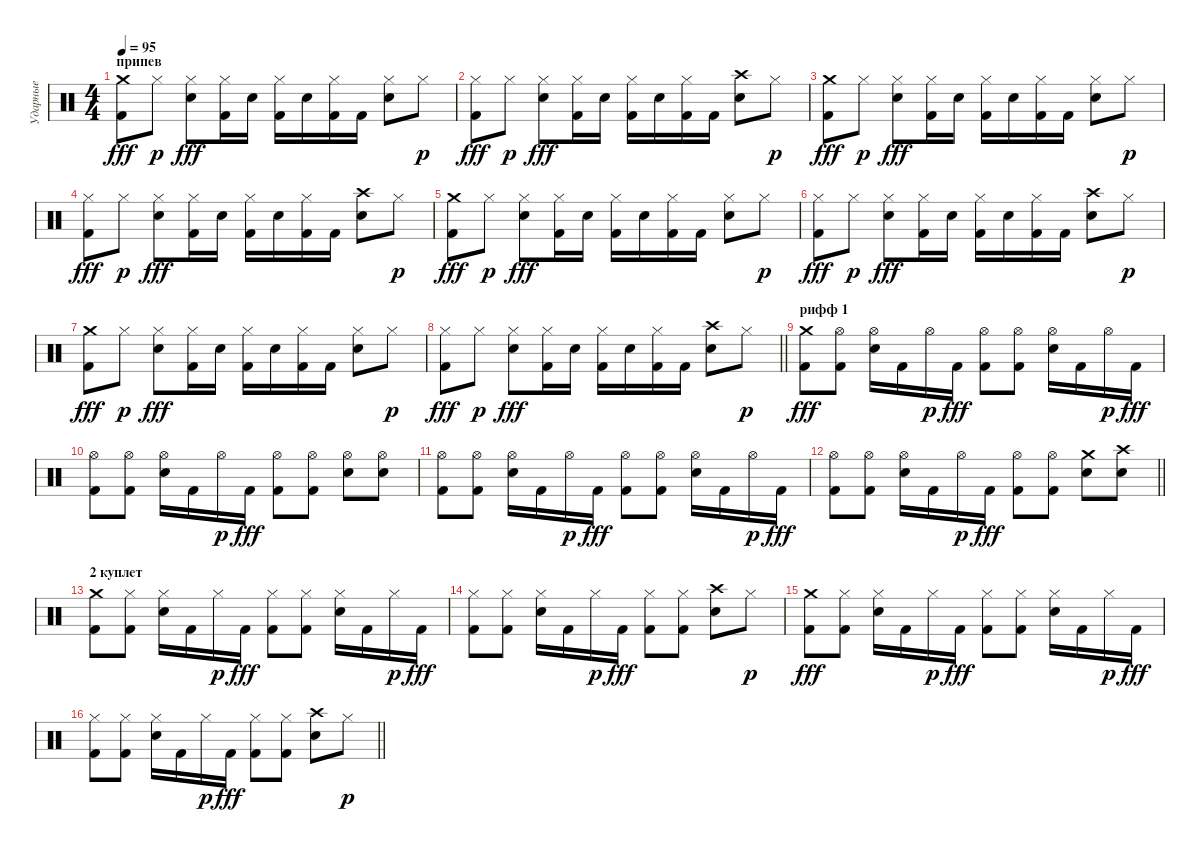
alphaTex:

\track ("Ударные" "Ударные") {instrument percussion}
\staff {score}
\articulation defaults
\ts (4 4)
\section ("" "припев")
\tempo 95
\clef neutral
\ks c
("Crash medium (hit)" "Kick (hit) 2").8{dy fff} "Hi-Hat (closed)".8{dy p} ("Hi-Hat (closed)" "Snare (hit) 2").8{dy fff} ("Hi-Hat (closed)" "Kick (hit) 2").16 "Snare (hit) 2".16 ("Hi-Hat (closed)" "Kick (hit) 2").16 "Snare (hit) 2".16 ("Hi-Hat (closed)" "Kick (hit) 2").16 "Kick (hit) 2".16 ("Hi-Hat (closed)" "Snare (hit) 2").8 "Hi-Hat (closed)".8{dy p} |
("Hi-Hat (closed)" "Kick (hit) 2").8{dy fff} "Hi-Hat (closed)".8{dy p} ("Hi-Hat (closed)" "Snare (hit) 2").8{dy fff} ("Hi-Hat (closed)" "Kick (hit) 2").16 "Snare (hit) 2".16 ("Hi-Hat (closed)" "Kick (hit) 2").16 "Snare (hit) 2".16 ("Hi-Hat (closed)" "Kick (hit) 2").16 "Kick (hit) 2".16 ("Crash high (hit)" "Snare (hit) 2").8 "Hi-Hat (closed)".8{dy p} |
("Crash medium (hit)" "Kick (hit) 2").8{dy fff} "Hi-Hat (closed)".8{dy p} ("Hi-Hat (closed)" "Snare (hit) 2").8{dy fff} ("Hi-Hat (closed)" "Kick (hit) 2").16 "Snare (hit) 2".16 ("Hi-Hat (closed)" "Kick (hit) 2").16 "Snare (hit) 2".16 ("Hi-Hat (closed)" "Kick (hit) 2").16 "Kick (hit) 2".16 ("Hi-Hat (closed)" "Snare (hit) 2").8 "Hi-Hat (closed)".8{dy p} |
("Hi-Hat (closed)" "Kick (hit) 2").8{dy fff} "Hi-Hat (closed)".8{dy p} ("Hi-Hat (closed)" "Snare (hit) 2").8{dy fff} ("Hi-Hat (closed)" "Kick (hit) 2").16 "Snare (hit) 2".16 ("Hi-Hat (closed)" "Kick (hit) 2").16 "Snare (hit) 2".16 ("Hi-Hat (closed)" "Kick (hit) 2").16 "Kick (hit) 2".16 ("Crash high (hit)" "Snare (hit) 2").8 "Hi-Hat (closed)".8{dy p} |
("Crash medium (hit)" "Kick (hit) 2").8{dy fff} "Hi-Hat (closed)".8{dy p} ("Hi-Hat (closed)" "Snare (hit) 2").8{dy fff} ("Hi-Hat (closed)" "Kick (hit) 2").16 "Snare (hit) 2".16 ("Hi-Hat (closed)" "Kick (hit) 2").16 "Snare (hit) 2".16 ("Hi-Hat (closed)" "Kick (hit) 2").16 "Kick (hit) 2".16 ("Hi-Hat (closed)" "Snare (hit) 2").8 "Hi-Hat (closed)".8{dy p} |
("Hi-Hat (closed)" "Kick (hit) 2").8{dy fff} "Hi-Hat (closed)".8{dy p} ("Hi-Hat (closed)" "Snare (hit) 2").8{dy fff} ("Hi-Hat (closed)" "Kick (hit) 2").16 "Snare (hit) 2".16 ("Hi-Hat (closed)" "Kick (hit) 2").16 "Snare (hit) 2".16 ("Hi-Hat (closed)" "Kick (hit) 2").16 "Kick (hit) 2".16 ("Crash high (hit)" "Snare (hit) 2").8 "Hi-Hat (closed)".8{dy p} |
("Crash medium (hit)" "Kick (hit) 2").8{dy fff} "Hi-Hat (closed)".8{dy p} ("Hi-Hat (closed)" "Snare (hit) 2").8{dy fff} ("Hi-Hat (closed)" "Kick (hit) 2").16 "Snare (hit) 2".16 ("Hi-Hat (closed)" "Kick (hit) 2").16 "Snare (hit) 2".16 ("Hi-Hat (closed)" "Kick (hit) 2").16 "Kick (hit) 2".16 ("Hi-Hat (closed)" "Snare (hit) 2").8 "Hi-Hat (closed)".8{dy p} |
\barLineRight lightlight
("Hi-Hat (closed)" "Kick (hit) 2").8{dy fff} "Hi-Hat (closed)".8{dy p} ("Hi-Hat (closed)" "Snare (hit) 2").8{dy fff} ("Hi-Hat (closed)" "Kick (hit) 2").16 "Snare (hit) 2".16 ("Hi-Hat (closed)" "Kick (hit) 2").16 "Snare (hit) 2".16 ("Hi-Hat (closed)" "Kick (hit) 2").16 "Kick (hit) 2".16 ("Crash high (hit)" "Snare (hit) 2").8 "Hi-Hat (closed)".8{dy p} |
\section ("" "рифф 1")
("Crash medium (hit)" "Kick (hit) 2").8{dy fff} ("Hi-Hat (open)" "Kick (hit) 2").8 ("Hi-Hat (open)" "Snare (hit) 2").16 "Kick (hit) 2".16 "Hi-Hat (open)".16{dy p} "Kick (hit) 2".16{dy fff} ("Hi-Hat (open)" "Kick (hit) 2").8 ("Hi-Hat (open)" "Kick (hit) 2").8 ("Hi-Hat (open)" "Snare (hit) 2").16 "Kick (hit) 2".16 "Hi-Hat (open)".16{dy p} "Kick (hit) 2".16{dy fff} |
("Hi-Hat (open)" "Kick (hit) 2").8 ("Hi-Hat (open)" "Kick (hit) 2").8 ("Hi-Hat (open)" "Snare (hit) 2").16 "Kick (hit) 2".16 "Hi-Hat (open)".16{dy p} "Kick (hit) 2".16{dy fff} ("Hi-Hat (open)" "Kick (hit) 2").8 ("Hi-Hat (open)" "Kick (hit) 2").8 ("Hi-Hat (open)" "Snare (hit) 2").8 ("Hi-Hat (open)" "Snare (hit) 2").8 |
("Hi-Hat (open)" "Kick (hit) 2").8 ("Hi-Hat (open)" "Kick (hit) 2").8 ("Hi-Hat (open)" "Snare (hit) 2").16 "Kick (hit) 2".16 "Hi-Hat (open)".16{dy p} "Kick (hit) 2".16{dy fff} ("Hi-Hat (open)" "Kick (hit) 2").8 ("Hi-Hat (open)" "Kick (hit) 2").8 ("Hi-Hat (open)" "Snare (hit) 2").16 "Kick (hit) 2".16 "Hi-Hat (open)".16{dy p} "Kick (hit) 2".16{dy fff} |
\barLineRight lightlight
("Hi-Hat (open)" "Kick (hit) 2").8 ("Hi-Hat (open)" "Kick (hit) 2").8 ("Hi-Hat (open)" "Snare (hit) 2").16 "Kick (hit) 2".16 "Hi-Hat (open)".16{dy p} "Kick (hit) 2".16{dy fff} ("Hi-Hat (open)" "Kick (hit) 2").8 ("Hi-Hat (open)" "Kick (hit) 2").8 ("Crash medium (hit)" "Snare (hit) 2").8 ("Crash high (hit)" "Snare (hit) 2").8 |
\section ("" "2 куплет")
("Crash medium (hit)" "Kick (hit) 2").8 ("Hi-Hat (closed)" "Kick (hit) 2").8 ("Hi-Hat (closed)" "Snare (hit) 2").16 "Kick (hit) 2".16 "Hi-Hat (closed)".16{dy p} "Kick (hit) 2".16{dy fff} ("Hi-Hat (closed)" "Kick (hit) 2").8 ("Hi-Hat (closed)" "Kick (hit) 2").8 ("Hi-Hat (closed)" "Snare (hit) 2").16 "Kick (hit) 2".16 "Hi-Hat (closed)".16{dy p} "Kick (hit) 2".16{dy fff} |
("Hi-Hat (closed)" "Kick (hit) 2").8 ("Hi-Hat (closed)" "Kick (hit) 2").8 ("Hi-Hat (closed)" "Snare (hit) 2").16 "Kick (hit) 2".16 "Hi-Hat (closed)".16{dy p} "Kick (hit) 2".16{dy fff} ("Hi-Hat (closed)" "Kick (hit) 2").8 ("Hi-Hat (closed)" "Kick (hit) 2").8 ("Crash high (hit)" "Snare (hit) 2").8 "Hi-Hat (closed)".8{dy p} |
("Crash medium (hit)" "Kick (hit) 2").8{dy fff} ("Hi-Hat (closed)" "Kick (hit) 2").8 ("Hi-Hat (closed)" "Snare (hit) 2").16 "Kick (hit) 2".16 "Hi-Hat (closed)".16{dy p} "Kick (hit) 2".16{dy fff} ("Hi-Hat (closed)" "Kick (hit) 2").8 ("Hi-Hat (closed)" "Kick (hit) 2").8 ("Hi-Hat (closed)" "Snare (hit) 2").16 "Kick (hit) 2".16 "Hi-Hat (closed)".16{dy p} "Kick (hit) 2".16{dy fff} |
\barLineRight lightlight
("Hi-Hat (closed)" "Kick (hit) 2").8 ("Hi-Hat (closed)" "Kick (hit) 2").8 ("Hi-Hat (closed)" "Snare (hit) 2").16 "Kick (hit) 2".16 "Hi-Hat (closed)".16{dy p} "Kick (hit) 2".16{dy fff} ("Hi-Hat (closed)" "Kick (hit) 2").8 ("Hi-Hat (closed)" "Kick (hit) 2").8 ("Crash high (hit)" "Snare (hit) 2").8 "Hi-Hat (closed)".8{dy p}
